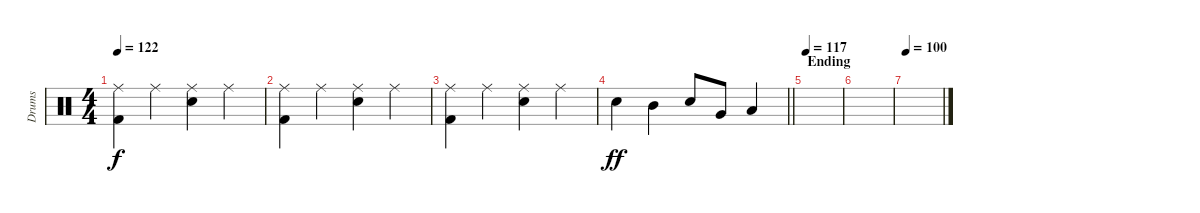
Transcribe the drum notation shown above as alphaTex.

\track ("Drums" "Drums") {instrument percussion}
\staff {score}
\articulation defaults
\ts (4 4)
\tempo 122
\clef neutral
\ks c
("Ride (middle)" "Kick (hit) 2").4{dy f} "Ride (middle)".4 ("Ride (middle)" "Electric Snare (hit)").4 "Ride (middle)".4 |
("Ride (middle)" "Kick (hit) 2").4 "Ride (middle)".4 ("Ride (middle)" "Electric Snare (hit)").4 "Ride (middle)".4 |
("Ride (middle)" "Kick (hit) 2").4 "Ride (middle)".4 ("Ride (middle)" "Electric Snare (hit)").4 "Ride (middle)".4 |
\barLineRight lightlight "Electric Snare (hit)".4{dy ff} "Mid Tom (hit)".4 "Electric Snare (hit)".8 "Very Low Tom (hit)".8 "Low Floor Tom (hit)".4
|
\section ("" "Ending")
\tempo 117
|
|
\tempo 100
